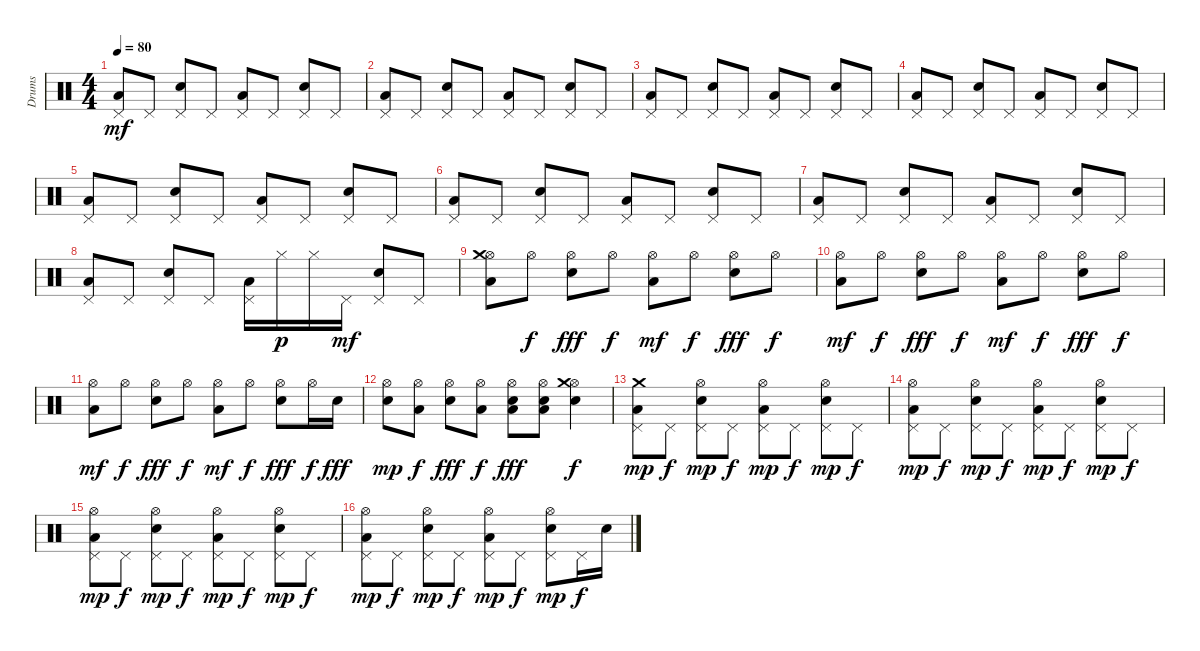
\track ("Drums" "Drums") {instrument percussion}
\staff {score}
\articulation defaults
\ts (4 4)
\tempo 80
\clef neutral
\ks c
("Low Floor Tom (hit)" "Pedal Hi-Hat (hit)").8{dy mf} "Pedal Hi-Hat (hit)".8 ("Electric Snare (hit)" "Pedal Hi-Hat (hit)").8 "Pedal Hi-Hat (hit)".8 ("Low Floor Tom (hit)" "Pedal Hi-Hat (hit)").8 "Pedal Hi-Hat (hit)".8 ("Electric Snare (hit)" "Pedal Hi-Hat (hit)").8 "Pedal Hi-Hat (hit)".8 |
("Low Floor Tom (hit)" "Pedal Hi-Hat (hit)").8 "Pedal Hi-Hat (hit)".8 ("Electric Snare (hit)" "Pedal Hi-Hat (hit)").8 "Pedal Hi-Hat (hit)".8 ("Low Floor Tom (hit)" "Pedal Hi-Hat (hit)").8 "Pedal Hi-Hat (hit)".8 ("Electric Snare (hit)" "Pedal Hi-Hat (hit)").8 "Pedal Hi-Hat (hit)".8 |
("Low Floor Tom (hit)" "Pedal Hi-Hat (hit)").8 "Pedal Hi-Hat (hit)".8 ("Electric Snare (hit)" "Pedal Hi-Hat (hit)").8 "Pedal Hi-Hat (hit)".8 ("Low Floor Tom (hit)" "Pedal Hi-Hat (hit)").8 "Pedal Hi-Hat (hit)".8 ("Electric Snare (hit)" "Pedal Hi-Hat (hit)").8 "Pedal Hi-Hat (hit)".8 |
("Low Floor Tom (hit)" "Pedal Hi-Hat (hit)").8 "Pedal Hi-Hat (hit)".8 ("Electric Snare (hit)" "Pedal Hi-Hat (hit)").8 "Pedal Hi-Hat (hit)".8 ("Low Floor Tom (hit)" "Pedal Hi-Hat (hit)").8 "Pedal Hi-Hat (hit)".8 ("Electric Snare (hit)" "Pedal Hi-Hat (hit)").8 "Pedal Hi-Hat (hit)".8 |
("Low Floor Tom (hit)" "Pedal Hi-Hat (hit)").8 "Pedal Hi-Hat (hit)".8 ("Electric Snare (hit)" "Pedal Hi-Hat (hit)").8 "Pedal Hi-Hat (hit)".8 ("Low Floor Tom (hit)" "Pedal Hi-Hat (hit)").8 "Pedal Hi-Hat (hit)".8 ("Electric Snare (hit)" "Pedal Hi-Hat (hit)").8 "Pedal Hi-Hat (hit)".8 |
("Low Floor Tom (hit)" "Pedal Hi-Hat (hit)").8 "Pedal Hi-Hat (hit)".8 ("Electric Snare (hit)" "Pedal Hi-Hat (hit)").8 "Pedal Hi-Hat (hit)".8 ("Low Floor Tom (hit)" "Pedal Hi-Hat (hit)").8 "Pedal Hi-Hat (hit)".8 ("Electric Snare (hit)" "Pedal Hi-Hat (hit)").8 "Pedal Hi-Hat (hit)".8 |
("Low Floor Tom (hit)" "Pedal Hi-Hat (hit)").8 "Pedal Hi-Hat (hit)".8 ("Electric Snare (hit)" "Pedal Hi-Hat (hit)").8 "Pedal Hi-Hat (hit)".8 ("Low Floor Tom (hit)" "Pedal Hi-Hat (hit)").8 "Pedal Hi-Hat (hit)".8 ("Electric Snare (hit)" "Pedal Hi-Hat (hit)").8 "Pedal Hi-Hat (hit)".8 |
("Low Floor Tom (hit)" "Pedal Hi-Hat (hit)").8 "Pedal Hi-Hat (hit)".8 ("Electric Snare (hit)" "Pedal Hi-Hat (hit)").8 "Pedal Hi-Hat (hit)".8 ("Low Floor Tom (hit)" "Pedal Hi-Hat (hit)").16 "Hi-Hat (closed)".16{dy p} "Hi-Hat (closed)".16 "Pedal Hi-Hat (hit)".16{dy mf} ("Electric Snare (hit)" "Pedal Hi-Hat (hit)").8 "Pedal Hi-Hat (hit)".8 |
("Low Floor Tom (hit)" "Hi-Hat (open)" "Crash medium (hit)").8 "Hi-Hat (open)".8{dy f} ("Electric Snare (hit)" "Hi-Hat (open)").8{dy fff} "Hi-Hat (open)".8{dy f} ("Low Floor Tom (hit)" "Hi-Hat (open)").8{dy mf} "Hi-Hat (open)".8{dy f} ("Electric Snare (hit)" "Hi-Hat (open)").8{dy fff} "Hi-Hat (open)".8{dy f} |
("Low Floor Tom (hit)" "Hi-Hat (open)").8{dy mf} "Hi-Hat (open)".8{dy f} ("Electric Snare (hit)" "Hi-Hat (open)").8{dy fff} "Hi-Hat (open)".8{dy f} ("Low Floor Tom (hit)" "Hi-Hat (open)").8{dy mf} "Hi-Hat (open)".8{dy f} ("Electric Snare (hit)" "Hi-Hat (open)").8{dy fff} "Hi-Hat (open)".8{dy f} |
("Low Floor Tom (hit)" "Hi-Hat (open)").8{dy mf} "Hi-Hat (open)".8{dy f} ("Electric Snare (hit)" "Hi-Hat (open)").8{dy fff} "Hi-Hat (open)".8{dy f} ("Low Floor Tom (hit)" "Hi-Hat (open)").8{dy mf} "Hi-Hat (open)".8{dy f} ("Electric Snare (hit)" "Hi-Hat (open)").8{dy fff} "Hi-Hat (open)".16{dy f} "Electric Snare (hit)".16{dy fff} |
("Electric Snare (hit)" "Hi-Hat (open)").8{dy mp} ("Low Floor Tom (hit)" "Hi-Hat (open)").8{dy f} ("Electric Snare (hit)" "Hi-Hat (open)").8{dy fff} ("Low Floor Tom (hit)" "Hi-Hat (open)").8{dy f} ("Low Floor Tom (hit)" "Hi-Hat (open)" "Electric Snare (hit)").8{dy fff} ("Low Floor Tom (hit)" "Hi-Hat (open)" "Electric Snare (hit)").8 ("Electric Snare (hit)" "Hi-Hat (open)" "Crash medium (hit)").4{dy f} |
("Low Floor Tom (hit)" "Pedal Hi-Hat (hit)" "Crash medium (hit)").8{dy mp} "Pedal Hi-Hat (hit)".8{dy f} ("Electric Snare (hit)" "Pedal Hi-Hat (hit)" "Hi-Hat (open)").8{dy mp} "Pedal Hi-Hat (hit)".8{dy f} ("Low Floor Tom (hit)" "Pedal Hi-Hat (hit)" "Hi-Hat (open)").8{dy mp} "Pedal Hi-Hat (hit)".8{dy f} ("Electric Snare (hit)" "Pedal Hi-Hat (hit)" "Hi-Hat (open)").8{dy mp} "Pedal Hi-Hat (hit)".8{dy f} |
("Low Floor Tom (hit)" "Pedal Hi-Hat (hit)" "Hi-Hat (open)").8{dy mp} "Pedal Hi-Hat (hit)".8{dy f} ("Electric Snare (hit)" "Pedal Hi-Hat (hit)" "Hi-Hat (open)").8{dy mp} "Pedal Hi-Hat (hit)".8{dy f} ("Low Floor Tom (hit)" "Pedal Hi-Hat (hit)" "Hi-Hat (open)").8{dy mp} "Pedal Hi-Hat (hit)".8{dy f} ("Electric Snare (hit)" "Pedal Hi-Hat (hit)" "Hi-Hat (open)").8{dy mp} "Pedal Hi-Hat (hit)".8{dy f} |
("Low Floor Tom (hit)" "Pedal Hi-Hat (hit)" "Hi-Hat (open)").8{dy mp} "Pedal Hi-Hat (hit)".8{dy f} ("Electric Snare (hit)" "Pedal Hi-Hat (hit)" "Hi-Hat (open)").8{dy mp} "Pedal Hi-Hat (hit)".8{dy f} ("Low Floor Tom (hit)" "Pedal Hi-Hat (hit)" "Hi-Hat (open)").8{dy mp} "Pedal Hi-Hat (hit)".8{dy f} ("Electric Snare (hit)" "Pedal Hi-Hat (hit)" "Hi-Hat (open)").8{dy mp} "Pedal Hi-Hat (hit)".8{dy f} |
("Low Floor Tom (hit)" "Pedal Hi-Hat (hit)" "Hi-Hat (open)").8{dy mp} "Pedal Hi-Hat (hit)".8{dy f} ("Electric Snare (hit)" "Pedal Hi-Hat (hit)" "Hi-Hat (open)").8{dy mp} "Pedal Hi-Hat (hit)".8{dy f} ("Low Floor Tom (hit)" "Pedal Hi-Hat (hit)" "Hi-Hat (open)").8{dy mp} "Pedal Hi-Hat (hit)".8{dy f} ("Electric Snare (hit)" "Pedal Hi-Hat (hit)" "Hi-Hat (open)").8{dy mp} "Pedal Hi-Hat (hit)".16{dy f} "Electric Snare (hit)".16
